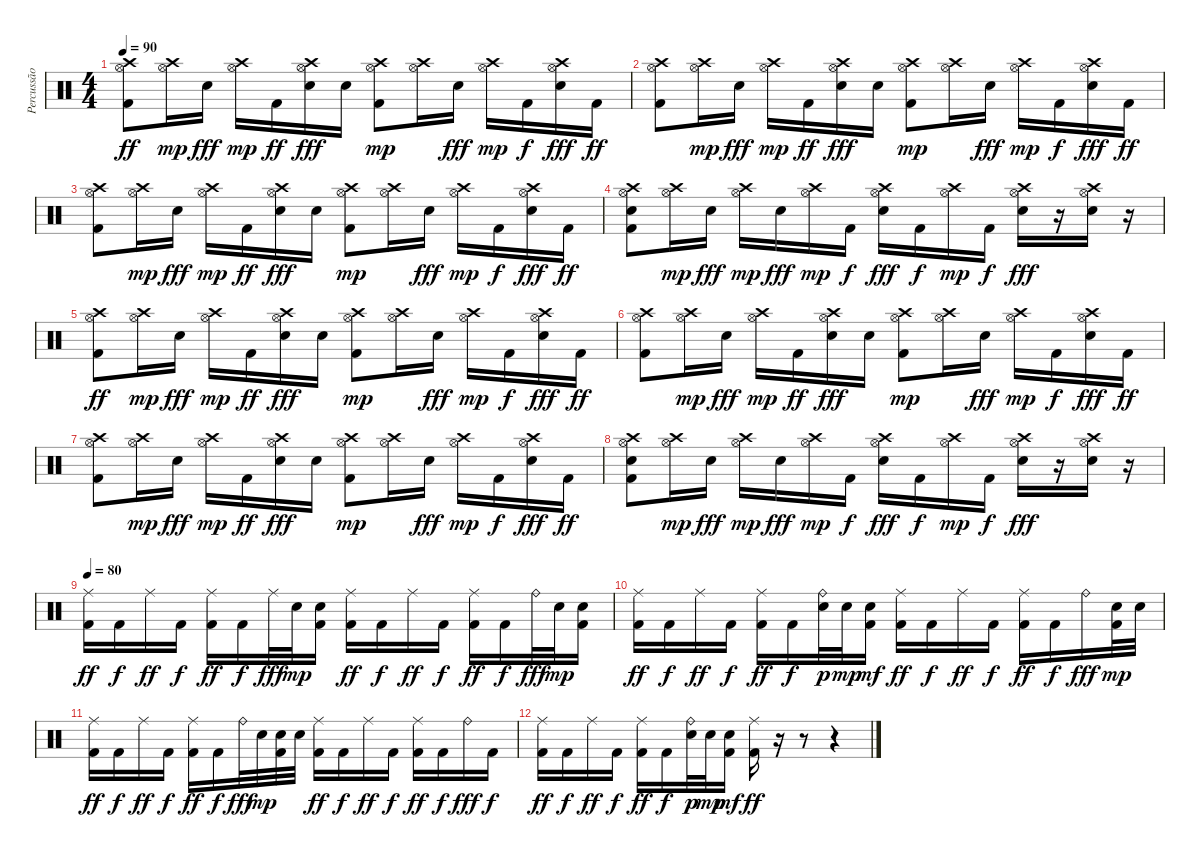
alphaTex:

\track ("Percussão" "Percussão") {instrument percussion}
\staff {score}
\articulation defaults
\ts (4 4)
\tempo 90
\clef neutral
\ks c
("Hi-Hat (open)" "Crash high (hit)" "Kick (hit) 2").8{dy ff} ("Hi-Hat (open)" "Crash high (hit)").16{dy mp} "Electric Snare (hit)".16{dy fff} ("Hi-Hat (open)" "Crash high (hit)").16{dy mp} "Kick (hit) 2".16{dy ff} ("Hi-Hat (open)" "Crash high (hit)" "Electric Snare (hit)").16{dy fff} "Electric Snare (hit)".16 ("Hi-Hat (open)" "Crash high (hit)" "Kick (hit) 2").8{dy mp} ("Hi-Hat (open)" "Crash high (hit)").16 "Electric Snare (hit)".16{dy fff} ("Hi-Hat (open)" "Crash high (hit)").16{dy mp} "Kick (hit) 2".16{dy f} ("Hi-Hat (open)" "Crash high (hit)" "Electric Snare (hit)").16{dy fff} "Kick (hit) 2".16{dy ff} |
("Hi-Hat (open)" "Crash high (hit)" "Kick (hit) 2").8 ("Hi-Hat (open)" "Crash high (hit)").16{dy mp} "Electric Snare (hit)".16{dy fff} ("Hi-Hat (open)" "Crash high (hit)").16{dy mp} "Kick (hit) 2".16{dy ff} ("Hi-Hat (open)" "Crash high (hit)" "Electric Snare (hit)").16{dy fff} "Electric Snare (hit)".16 ("Hi-Hat (open)" "Crash high (hit)" "Kick (hit) 2").8{dy mp} ("Hi-Hat (open)" "Crash high (hit)").16 "Electric Snare (hit)".16{dy fff} ("Hi-Hat (open)" "Crash high (hit)").16{dy mp} "Kick (hit) 2".16{dy f} ("Hi-Hat (open)" "Crash high (hit)" "Electric Snare (hit)").16{dy fff} "Kick (hit) 2".16{dy ff} |
("Hi-Hat (open)" "Crash high (hit)" "Kick (hit) 2").8 ("Hi-Hat (open)" "Crash high (hit)").16{dy mp} "Electric Snare (hit)".16{dy fff} ("Hi-Hat (open)" "Crash high (hit)").16{dy mp} "Kick (hit) 2".16{dy ff} ("Hi-Hat (open)" "Crash high (hit)" "Electric Snare (hit)").16{dy fff} "Electric Snare (hit)".16 ("Hi-Hat (open)" "Crash high (hit)" "Kick (hit) 2").8{dy mp} ("Hi-Hat (open)" "Crash high (hit)").16 "Electric Snare (hit)".16{dy fff} ("Hi-Hat (open)" "Crash high (hit)").16{dy mp} "Kick (hit) 2".16{dy f} ("Hi-Hat (open)" "Crash high (hit)" "Electric Snare (hit)").16{dy fff} "Kick (hit) 2".16{dy ff} |
("Hi-Hat (open)" "Crash high (hit)" "Electric Snare (hit)" "Kick (hit) 2").8 ("Hi-Hat (open)" "Crash high (hit)").16{dy mp} "Electric Snare (hit)".16{dy fff} ("Hi-Hat (open)" "Crash high (hit)").16{dy mp} "Electric Snare (hit)".16{dy fff} ("Hi-Hat (open)" "Crash high (hit)").16{dy mp} "Kick (hit) 2".16{dy f} ("Hi-Hat (open)" "Crash high (hit)" "Electric Snare (hit)").16{dy fff} "Kick (hit) 2".16{dy f} ("Hi-Hat (open)" "Crash high (hit)").16{dy mp} "Kick (hit) 2".16{dy f} ("Hi-Hat (open)" "Crash high (hit)" "Electric Snare (hit)").16{dy fff} r.16 ("Hi-Hat (open)" "Crash high (hit)" "Electric Snare (hit)").16 r.16 |
("Hi-Hat (open)" "Crash high (hit)" "Kick (hit) 2").8{dy ff} ("Hi-Hat (open)" "Crash high (hit)").16{dy mp} "Electric Snare (hit)".16{dy fff} ("Hi-Hat (open)" "Crash high (hit)").16{dy mp} "Kick (hit) 2".16{dy ff} ("Hi-Hat (open)" "Crash high (hit)" "Electric Snare (hit)").16{dy fff} "Electric Snare (hit)".16 ("Hi-Hat (open)" "Crash high (hit)" "Kick (hit) 2").8{dy mp} ("Hi-Hat (open)" "Crash high (hit)").16 "Electric Snare (hit)".16{dy fff} ("Hi-Hat (open)" "Crash high (hit)").16{dy mp} "Kick (hit) 2".16{dy f} ("Hi-Hat (open)" "Crash high (hit)" "Electric Snare (hit)").16{dy fff} "Kick (hit) 2".16{dy ff} |
("Hi-Hat (open)" "Crash high (hit)" "Kick (hit) 2").8 ("Hi-Hat (open)" "Crash high (hit)").16{dy mp} "Electric Snare (hit)".16{dy fff} ("Hi-Hat (open)" "Crash high (hit)").16{dy mp} "Kick (hit) 2".16{dy ff} ("Hi-Hat (open)" "Crash high (hit)" "Electric Snare (hit)").16{dy fff} "Electric Snare (hit)".16 ("Hi-Hat (open)" "Crash high (hit)" "Kick (hit) 2").8{dy mp} ("Hi-Hat (open)" "Crash high (hit)").16 "Electric Snare (hit)".16{dy fff} ("Hi-Hat (open)" "Crash high (hit)").16{dy mp} "Kick (hit) 2".16{dy f} ("Hi-Hat (open)" "Crash high (hit)" "Electric Snare (hit)").16{dy fff} "Kick (hit) 2".16{dy ff} |
("Hi-Hat (open)" "Crash high (hit)" "Kick (hit) 2").8 ("Hi-Hat (open)" "Crash high (hit)").16{dy mp} "Electric Snare (hit)".16{dy fff} ("Hi-Hat (open)" "Crash high (hit)").16{dy mp} "Kick (hit) 2".16{dy ff} ("Hi-Hat (open)" "Crash high (hit)" "Electric Snare (hit)").16{dy fff} "Electric Snare (hit)".16 ("Hi-Hat (open)" "Crash high (hit)" "Kick (hit) 2").8{dy mp} ("Hi-Hat (open)" "Crash high (hit)").16 "Electric Snare (hit)".16{dy fff} ("Hi-Hat (open)" "Crash high (hit)").16{dy mp} "Kick (hit) 2".16{dy f} ("Hi-Hat (open)" "Crash high (hit)" "Electric Snare (hit)").16{dy fff} "Kick (hit) 2".16{dy ff} |
("Hi-Hat (open)" "Crash high (hit)" "Electric Snare (hit)" "Kick (hit) 2").8 ("Hi-Hat (open)" "Crash high (hit)").16{dy mp} "Electric Snare (hit)".16{dy fff} ("Hi-Hat (open)" "Crash high (hit)").16{dy mp} "Electric Snare (hit)".16{dy fff} ("Hi-Hat (open)" "Crash high (hit)").16{dy mp} "Kick (hit) 2".16{dy f} ("Hi-Hat (open)" "Crash high (hit)" "Electric Snare (hit)").16{dy fff} "Kick (hit) 2".16{dy f} ("Hi-Hat (open)" "Crash high (hit)").16{dy mp} "Kick (hit) 2".16{dy f} ("Hi-Hat (open)" "Crash high (hit)" "Electric Snare (hit)").16{dy fff} r.16 ("Hi-Hat (open)" "Crash high (hit)" "Electric Snare (hit)").16 r.16 |
\tempo 80
("Ride (middle)" "Kick (hit) 2").16{dy ff} "Kick (hit) 2".16{dy f} "Ride (middle)".16{dy ff} "Kick (hit) 2".16{dy f} ("Ride (middle)" "Kick (hit) 2").16{dy ff} "Kick (hit) 2".16{dy f} "Ride (middle)".32{dy fff} "Electric Snare (hit)".32{dy mp} ("Electric Snare (hit)" "Kick (hit) 2").16 ("Ride (middle)" "Kick (hit) 2").16{dy ff} "Kick (hit) 2".16{dy f} "Ride (middle)".16{dy ff} "Kick (hit) 2".16{dy f} ("Ride (middle)" "Kick (hit) 2").16{dy ff} "Kick (hit) 2".16{dy f} "Ride (bell)".32{dy fff} "Electric Snare (hit)".32{dy mp} ("Electric Snare (hit)" "Kick (hit) 2").16 |
("Ride (middle)" "Kick (hit) 2").16{dy ff} "Kick (hit) 2".16{dy f} "Ride (middle)".16{dy ff} "Kick (hit) 2".16{dy f} ("Ride (middle)" "Kick (hit) 2").16{dy ff} "Kick (hit) 2".16{dy f} ("Ride (bell)" "Electric Snare (hit)").32{dy p} "Electric Snare (hit)".32{dy mp} ("Electric Snare (hit)" "Kick (hit) 2").16{dy mf} ("Ride (middle)" "Kick (hit) 2").16{dy ff} "Kick (hit) 2".16{dy f} "Ride (middle)".16{dy ff} "Kick (hit) 2".16{dy f} ("Ride (middle)" "Kick (hit) 2").16{dy ff} "Kick (hit) 2".16{dy f} "Ride (bell)".16{dy fff} ("Electric Snare (hit)" "Kick (hit) 2").32{dy mp} "Electric Snare (hit)".32 |
("Ride (middle)" "Kick (hit) 2").16{dy ff} "Kick (hit) 2".16{dy f} "Ride (middle)".16{dy ff} "Kick (hit) 2".16{dy f} ("Ride (middle)" "Kick (hit) 2").16{dy ff} "Kick (hit) 2".16{dy f} "Ride (bell)".32{dy fff} "Electric Snare (hit)".32{dy mp} ("Electric Snare (hit)" "Kick (hit) 2").32 "Electric Snare (hit)".32 ("Ride (middle)" "Kick (hit) 2").16{dy ff} "Kick (hit) 2".16{dy f} "Ride (middle)".16{dy ff} "Kick (hit) 2".16{dy f} ("Ride (middle)" "Kick (hit) 2").16{dy ff} "Kick (hit) 2".16{dy f} "Ride (bell)".16{dy fff} "Kick (hit) 2".16{dy f} |
("Ride (middle)" "Kick (hit) 2").16{dy ff} "Kick (hit) 2".16{dy f} "Ride (middle)".16{dy ff} "Kick (hit) 2".16{dy f} ("Ride (middle)" "Kick (hit) 2").16{dy ff} "Kick (hit) 2".16{dy f} ("Ride (bell)" "Electric Snare (hit)").32{dy p} "Electric Snare (hit)".32{dy mp} ("Electric Snare (hit)" "Kick (hit) 2").16{dy mf} ("Ride (middle)" "Kick (hit) 2").16{dy ff} r.16 r.8 r.4
